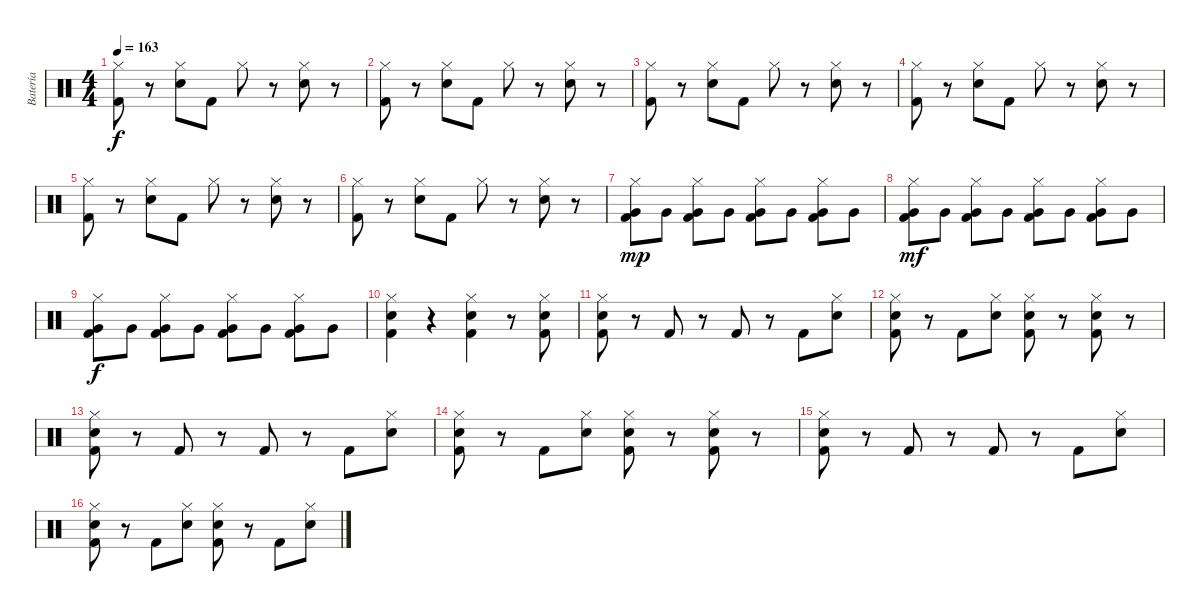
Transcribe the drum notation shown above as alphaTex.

\track ("Batería" "Batería") {instrument percussion}
\staff {score}
\articulation defaults
\ts (4 4)
\tempo 163
\clef neutral
\ks c
("Hi-Hat (closed)" "Kick (hit) 2").8{dy f} r.8 ("Hi-Hat (closed)" "Snare (hit) 2").8 "Kick (hit) 2".8 "Hi-Hat (closed)".8 r.8 ("Hi-Hat (closed)" "Snare (hit) 2").8 r.8 |
("Hi-Hat (closed)" "Kick (hit) 2").8 r.8 ("Hi-Hat (closed)" "Snare (hit) 2").8 "Kick (hit) 2".8 "Hi-Hat (closed)".8 r.8 ("Hi-Hat (closed)" "Snare (hit) 2").8 r.8 |
("Hi-Hat (closed)" "Kick (hit) 2").8 r.8 ("Hi-Hat (closed)" "Snare (hit) 2").8 "Kick (hit) 2".8 "Hi-Hat (closed)".8 r.8 ("Hi-Hat (closed)" "Snare (hit) 2").8 r.8 |
("Hi-Hat (closed)" "Kick (hit) 2").8 r.8 ("Hi-Hat (closed)" "Snare (hit) 2").8 "Kick (hit) 2".8 "Hi-Hat (closed)".8 r.8 ("Hi-Hat (closed)" "Snare (hit) 2").8 r.8 |
("Hi-Hat (closed)" "Kick (hit) 2").8 r.8 ("Hi-Hat (closed)" "Snare (hit) 2").8 "Kick (hit) 2".8 "Hi-Hat (closed)".8 r.8 ("Hi-Hat (closed)" "Snare (hit) 2").8 r.8 |
("Hi-Hat (closed)" "Kick (hit) 2").8 r.8 ("Hi-Hat (closed)" "Snare (hit) 2").8 "Kick (hit) 2".8 "Hi-Hat (closed)".8 r.8 ("Hi-Hat (closed)" "Snare (hit) 2").8 r.8 |
("Hi-Hat (closed)" "Very Low Tom (hit)" "Kick (hit) 2").8{dy mp} "Very Low Tom (hit)".8 ("Hi-Hat (closed)" "Very Low Tom (hit)" "Kick (hit) 2").8 "Very Low Tom (hit)".8 ("Hi-Hat (closed)" "Very Low Tom (hit)" "Kick (hit) 2").8 "Very Low Tom (hit)".8 ("Hi-Hat (closed)" "Very Low Tom (hit)" "Kick (hit) 2").8 "Very Low Tom (hit)".8 |
("Hi-Hat (closed)" "Very Low Tom (hit)" "Kick (hit) 2").8{dy mf} "Very Low Tom (hit)".8 ("Hi-Hat (closed)" "Very Low Tom (hit)" "Kick (hit) 2").8 "Very Low Tom (hit)".8 ("Hi-Hat (closed)" "Very Low Tom (hit)" "Kick (hit) 2").8 "Very Low Tom (hit)".8 ("Hi-Hat (closed)" "Very Low Tom (hit)" "Kick (hit) 2").8 "Very Low Tom (hit)".8 |
("Hi-Hat (closed)" "Very Low Tom (hit)" "Kick (hit) 2").8{dy f} "Very Low Tom (hit)".8 ("Hi-Hat (closed)" "Very Low Tom (hit)" "Kick (hit) 2").8 "Very Low Tom (hit)".8 ("Hi-Hat (closed)" "Very Low Tom (hit)" "Kick (hit) 2").8 "Very Low Tom (hit)".8 ("Hi-Hat (closed)" "Very Low Tom (hit)" "Kick (hit) 2").8 "Very Low Tom (hit)".8 |
("Hi-Hat (closed)" "Snare (hit) 2" "Kick (hit) 2").4 r.4 ("Hi-Hat (closed)" "Snare (hit) 2" "Kick (hit) 2").4 r.8 ("Hi-Hat (closed)" "Snare (hit) 2" "Kick (hit) 2").8 |
("Hi-Hat (closed)" "Snare (hit) 2" "Kick (hit) 2").8 r.8 "Kick (hit) 2".8 r.8 "Kick (hit) 2".8 r.8 "Kick (hit) 2".8 ("Hi-Hat (closed)" "Snare (hit) 2").8 |
("Hi-Hat (closed)" "Snare (hit) 2" "Kick (hit) 2").8 r.8 "Kick (hit) 2".8 ("Hi-Hat (closed)" "Snare (hit) 2").8 ("Hi-Hat (closed)" "Snare (hit) 2" "Kick (hit) 2").8 r.8 ("Hi-Hat (closed)" "Snare (hit) 2" "Kick (hit) 2").8 r.8 |
("Hi-Hat (closed)" "Snare (hit) 2" "Kick (hit) 2").8 r.8 "Kick (hit) 2".8 r.8 "Kick (hit) 2".8 r.8 "Kick (hit) 2".8 ("Hi-Hat (closed)" "Snare (hit) 2").8 |
("Hi-Hat (closed)" "Snare (hit) 2" "Kick (hit) 2").8 r.8 "Kick (hit) 2".8 ("Hi-Hat (closed)" "Snare (hit) 2").8 ("Hi-Hat (closed)" "Snare (hit) 2" "Kick (hit) 2").8 r.8 ("Hi-Hat (closed)" "Snare (hit) 2" "Kick (hit) 2").8 r.8 |
("Hi-Hat (closed)" "Snare (hit) 2" "Kick (hit) 2").8 r.8 "Kick (hit) 2".8 r.8 "Kick (hit) 2".8 r.8 "Kick (hit) 2".8 ("Hi-Hat (closed)" "Snare (hit) 2").8 |
("Hi-Hat (closed)" "Snare (hit) 2" "Kick (hit) 2").8 r.8 "Kick (hit) 2".8 ("Hi-Hat (closed)" "Snare (hit) 2").8 ("Hi-Hat (closed)" "Snare (hit) 2" "Kick (hit) 2").8 r.8 "Kick (hit) 2".8 ("Hi-Hat (closed)" "Snare (hit) 2").8
